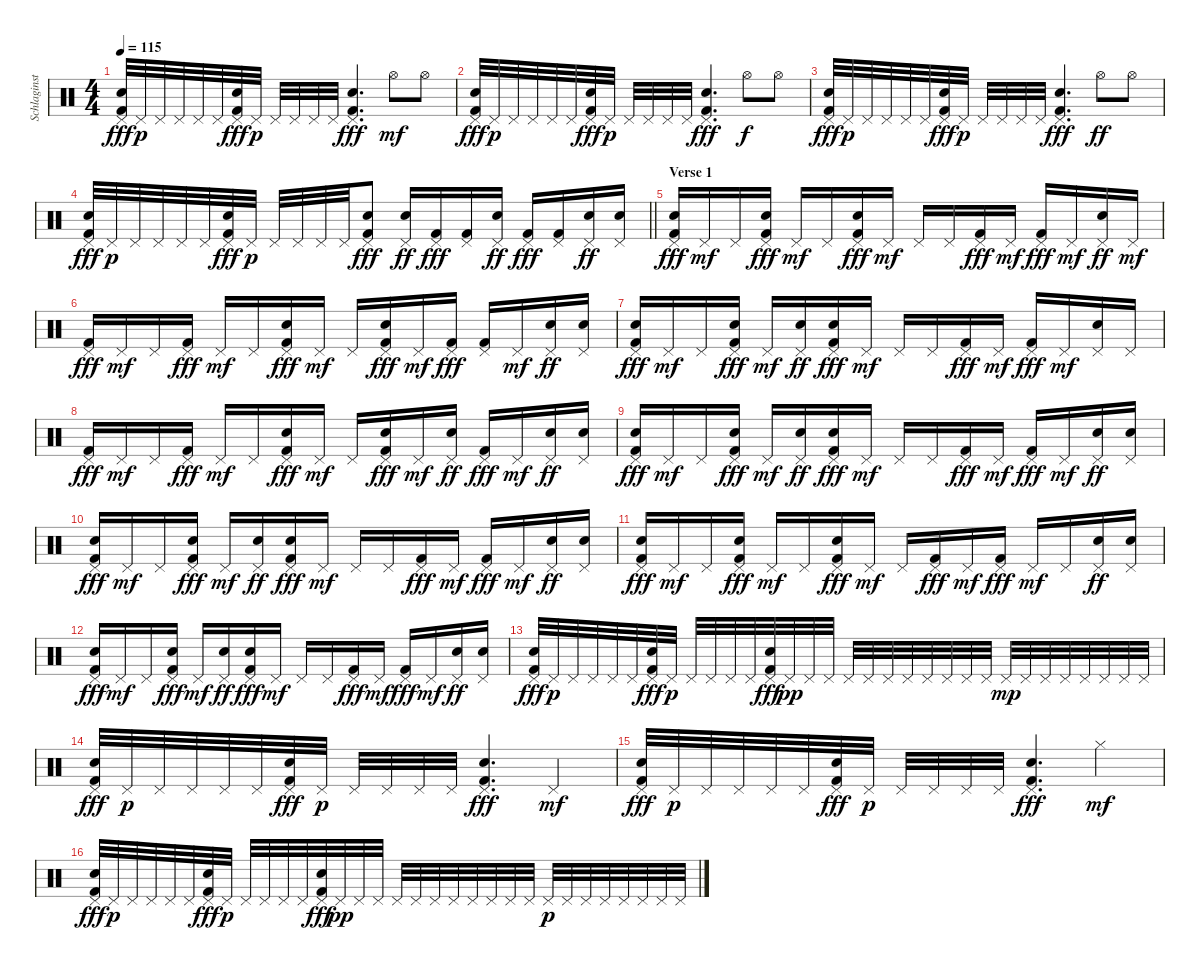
\track ("Schlaginstrumente - Auswahl" "Schlaginst") {instrument percussion}
\staff {score}
\articulation defaults
\ts (4 4)
\tempo 115
\clef neutral
\ks c
("Pedal Hi-Hat (hit)" "Snare (hit) 2" "Kick (hit) 2").32{dy fff} "Pedal Hi-Hat (hit)".32{dy p} "Pedal Hi-Hat (hit)".32 "Pedal Hi-Hat (hit)".32 "Pedal Hi-Hat (hit)".32 "Pedal Hi-Hat (hit)".32 ("Pedal Hi-Hat (hit)" "Snare (hit) 2" "Kick (hit) 2").32{dy fff} "Pedal Hi-Hat (hit)".32{dy p} "Pedal Hi-Hat (hit)".32 "Pedal Hi-Hat (hit)".32 "Pedal Hi-Hat (hit)".32 "Pedal Hi-Hat (hit)".32 ("Pedal Hi-Hat (hit)" "Snare (hit) 2" "Kick (hit) 2").4{d dy fff} "Hi-Hat (open)".8{dy mf} "Hi-Hat (open)".8 |
("Pedal Hi-Hat (hit)" "Snare (hit) 2" "Kick (hit) 2").32{dy fff} "Pedal Hi-Hat (hit)".32{dy p} "Pedal Hi-Hat (hit)".32 "Pedal Hi-Hat (hit)".32 "Pedal Hi-Hat (hit)".32 "Pedal Hi-Hat (hit)".32 ("Pedal Hi-Hat (hit)" "Snare (hit) 2" "Kick (hit) 2").32{dy fff} "Pedal Hi-Hat (hit)".32{dy p} "Pedal Hi-Hat (hit)".32 "Pedal Hi-Hat (hit)".32 "Pedal Hi-Hat (hit)".32 "Pedal Hi-Hat (hit)".32 ("Pedal Hi-Hat (hit)" "Snare (hit) 2" "Kick (hit) 2").4{d dy fff} "Hi-Hat (open)".8{dy f} "Hi-Hat (open)".8 |
("Pedal Hi-Hat (hit)" "Snare (hit) 2" "Kick (hit) 2").32{dy fff} "Pedal Hi-Hat (hit)".32{dy p} "Pedal Hi-Hat (hit)".32 "Pedal Hi-Hat (hit)".32 "Pedal Hi-Hat (hit)".32 "Pedal Hi-Hat (hit)".32 ("Pedal Hi-Hat (hit)" "Snare (hit) 2" "Kick (hit) 2").32{dy fff} "Pedal Hi-Hat (hit)".32{dy p} "Pedal Hi-Hat (hit)".32 "Pedal Hi-Hat (hit)".32 "Pedal Hi-Hat (hit)".32 "Pedal Hi-Hat (hit)".32 ("Pedal Hi-Hat (hit)" "Snare (hit) 2" "Kick (hit) 2").4{d dy fff} "Hi-Hat (open)".8{dy ff} "Hi-Hat (open)".8 |
\barLineRight lightlight
("Pedal Hi-Hat (hit)" "Snare (hit) 2" "Kick (hit) 2").32{dy fff} "Pedal Hi-Hat (hit)".32{dy p} "Pedal Hi-Hat (hit)".32 "Pedal Hi-Hat (hit)".32 "Pedal Hi-Hat (hit)".32 "Pedal Hi-Hat (hit)".32 ("Pedal Hi-Hat (hit)" "Snare (hit) 2" "Kick (hit) 2").32{dy fff} "Pedal Hi-Hat (hit)".32{dy p} "Pedal Hi-Hat (hit)".32 "Pedal Hi-Hat (hit)".32 "Pedal Hi-Hat (hit)".32 "Pedal Hi-Hat (hit)".32 ("Pedal Hi-Hat (hit)" "Snare (hit) 2" "Kick (hit) 2").8{dy fff} ("Pedal Hi-Hat (hit)" "Snare (hit) 2").16{dy ff} ("Pedal Hi-Hat (hit)" "Kick (hit) 2").16{dy fff} ("Pedal Hi-Hat (hit)" "Kick (hit) 2").16 ("Pedal Hi-Hat (hit)" "Snare (hit) 2").16{dy ff} ("Pedal Hi-Hat (hit)" "Kick (hit) 2").16{dy fff} ("Pedal Hi-Hat (hit)" "Kick (hit) 2").16 ("Pedal Hi-Hat (hit)" "Snare (hit) 2").16{dy ff} ("Pedal Hi-Hat (hit)" "Snare (hit) 2").16 |
\section ("" "Verse 1")
("Pedal Hi-Hat (hit)" "Snare (hit) 2" "Kick (hit) 2").16{dy fff} "Pedal Hi-Hat (hit)".16{dy mf} "Pedal Hi-Hat (hit)".16 ("Pedal Hi-Hat (hit)" "Snare (hit) 2" "Kick (hit) 2").16{dy fff} "Pedal Hi-Hat (hit)".16{dy mf} "Pedal Hi-Hat (hit)".16 ("Pedal Hi-Hat (hit)" "Snare (hit) 2" "Kick (hit) 2").16{dy fff} "Pedal Hi-Hat (hit)".16{dy mf} "Pedal Hi-Hat (hit)".16 "Pedal Hi-Hat (hit)".16 ("Pedal Hi-Hat (hit)" "Kick (hit) 2").16{dy fff} "Pedal Hi-Hat (hit)".16{dy mf} ("Pedal Hi-Hat (hit)" "Kick (hit) 2").16{dy fff} "Pedal Hi-Hat (hit)".16{dy mf} ("Pedal Hi-Hat (hit)" "Snare (hit) 2").16{dy ff} "Pedal Hi-Hat (hit)".16{dy mf} |
("Pedal Hi-Hat (hit)" "Kick (hit) 2").16{dy fff} "Pedal Hi-Hat (hit)".16{dy mf} "Pedal Hi-Hat (hit)".16 ("Pedal Hi-Hat (hit)" "Kick (hit) 2").16{dy fff} "Pedal Hi-Hat (hit)".16{dy mf} "Pedal Hi-Hat (hit)".16 ("Pedal Hi-Hat (hit)" "Snare (hit) 2" "Kick (hit) 2").16{dy fff} "Pedal Hi-Hat (hit)".16{dy mf} "Pedal Hi-Hat (hit)".16 ("Pedal Hi-Hat (hit)" "Snare (hit) 2" "Kick (hit) 2").16{dy fff} "Pedal Hi-Hat (hit)".16{dy mf} ("Pedal Hi-Hat (hit)" "Kick (hit) 2").16{dy fff} ("Pedal Hi-Hat (hit)" "Kick (hit) 2").16 "Pedal Hi-Hat (hit)".16{dy mf} ("Pedal Hi-Hat (hit)" "Snare (hit) 2").16{dy ff} ("Pedal Hi-Hat (hit)" "Snare (hit) 2").16 |
("Pedal Hi-Hat (hit)" "Snare (hit) 2" "Kick (hit) 2").16{dy fff} "Pedal Hi-Hat (hit)".16{dy mf} "Pedal Hi-Hat (hit)".16 ("Pedal Hi-Hat (hit)" "Snare (hit) 2" "Kick (hit) 2").16{dy fff} "Pedal Hi-Hat (hit)".16{dy mf} ("Pedal Hi-Hat (hit)" "Snare (hit) 2").16{dy ff} ("Pedal Hi-Hat (hit)" "Snare (hit) 2" "Kick (hit) 2").16{dy fff} "Pedal Hi-Hat (hit)".16{dy mf} "Pedal Hi-Hat (hit)".16 "Pedal Hi-Hat (hit)".16 ("Pedal Hi-Hat (hit)" "Kick (hit) 2").16{dy fff} "Pedal Hi-Hat (hit)".16{dy mf} ("Pedal Hi-Hat (hit)" "Kick (hit) 2").16{dy fff} "Pedal Hi-Hat (hit)".16{dy mf} ("Pedal Hi-Hat (hit)" "Snare (hit) 2").16 "Pedal Hi-Hat (hit)".16 |
("Pedal Hi-Hat (hit)" "Kick (hit) 2").16{dy fff} "Pedal Hi-Hat (hit)".16{dy mf} "Pedal Hi-Hat (hit)".16 ("Pedal Hi-Hat (hit)" "Kick (hit) 2").16{dy fff} "Pedal Hi-Hat (hit)".16{dy mf} "Pedal Hi-Hat (hit)".16 ("Pedal Hi-Hat (hit)" "Snare (hit) 2" "Kick (hit) 2").16{dy fff} "Pedal Hi-Hat (hit)".16{dy mf} "Pedal Hi-Hat (hit)".16 ("Pedal Hi-Hat (hit)" "Snare (hit) 2" "Kick (hit) 2").16{dy fff} "Pedal Hi-Hat (hit)".16{dy mf} ("Pedal Hi-Hat (hit)" "Snare (hit) 2").16{dy ff} ("Pedal Hi-Hat (hit)" "Kick (hit) 2").16{dy fff} "Pedal Hi-Hat (hit)".16{dy mf} ("Pedal Hi-Hat (hit)" "Snare (hit) 2").16{dy ff} ("Pedal Hi-Hat (hit)" "Snare (hit) 2").16 |
("Pedal Hi-Hat (hit)" "Snare (hit) 2" "Kick (hit) 2").16{dy fff} "Pedal Hi-Hat (hit)".16{dy mf} "Pedal Hi-Hat (hit)".16 ("Pedal Hi-Hat (hit)" "Snare (hit) 2" "Kick (hit) 2").16{dy fff} "Pedal Hi-Hat (hit)".16{dy mf} ("Pedal Hi-Hat (hit)" "Snare (hit) 2").16{dy ff} ("Pedal Hi-Hat (hit)" "Snare (hit) 2" "Kick (hit) 2").16{dy fff} "Pedal Hi-Hat (hit)".16{dy mf} "Pedal Hi-Hat (hit)".16 "Pedal Hi-Hat (hit)".16 ("Pedal Hi-Hat (hit)" "Kick (hit) 2").16{dy fff} "Pedal Hi-Hat (hit)".16{dy mf} ("Pedal Hi-Hat (hit)" "Kick (hit) 2").16{dy fff} "Pedal Hi-Hat (hit)".16{dy mf} ("Pedal Hi-Hat (hit)" "Snare (hit) 2").16{dy ff} ("Pedal Hi-Hat (hit)" "Snare (hit) 2").16 |
("Pedal Hi-Hat (hit)" "Snare (hit) 2" "Kick (hit) 2").16{dy fff} "Pedal Hi-Hat (hit)".16{dy mf} "Pedal Hi-Hat (hit)".16 ("Pedal Hi-Hat (hit)" "Snare (hit) 2" "Kick (hit) 2").16{dy fff} "Pedal Hi-Hat (hit)".16{dy mf} ("Pedal Hi-Hat (hit)" "Snare (hit) 2").16{dy ff} ("Pedal Hi-Hat (hit)" "Snare (hit) 2" "Kick (hit) 2").16{dy fff} "Pedal Hi-Hat (hit)".16{dy mf} "Pedal Hi-Hat (hit)".16 "Pedal Hi-Hat (hit)".16 ("Pedal Hi-Hat (hit)" "Kick (hit) 2").16{dy fff} "Pedal Hi-Hat (hit)".16{dy mf} ("Pedal Hi-Hat (hit)" "Kick (hit) 2").16{dy fff} "Pedal Hi-Hat (hit)".16{dy mf} ("Pedal Hi-Hat (hit)" "Snare (hit) 2").16{dy ff} ("Pedal Hi-Hat (hit)" "Snare (hit) 2").16 |
("Pedal Hi-Hat (hit)" "Snare (hit) 2" "Kick (hit) 2").16{dy fff} "Pedal Hi-Hat (hit)".16{dy mf} "Pedal Hi-Hat (hit)".16 ("Pedal Hi-Hat (hit)" "Snare (hit) 2" "Kick (hit) 2").16{dy fff} "Pedal Hi-Hat (hit)".16{dy mf} "Pedal Hi-Hat (hit)".16 ("Pedal Hi-Hat (hit)" "Snare (hit) 2" "Kick (hit) 2").16{dy fff} "Pedal Hi-Hat (hit)".16{dy mf} "Pedal Hi-Hat (hit)".16 ("Pedal Hi-Hat (hit)" "Kick (hit) 2").16{dy fff} "Pedal Hi-Hat (hit)".16{dy mf} ("Pedal Hi-Hat (hit)" "Kick (hit) 2").16{dy fff} "Pedal Hi-Hat (hit)".16{dy mf} "Pedal Hi-Hat (hit)".16 ("Pedal Hi-Hat (hit)" "Snare (hit) 2").16{dy ff} ("Pedal Hi-Hat (hit)" "Snare (hit) 2").16 |
("Pedal Hi-Hat (hit)" "Snare (hit) 2" "Kick (hit) 2").16{dy fff} "Pedal Hi-Hat (hit)".16{dy mf} "Pedal Hi-Hat (hit)".16 ("Pedal Hi-Hat (hit)" "Snare (hit) 2" "Kick (hit) 2").16{dy fff} "Pedal Hi-Hat (hit)".16{dy mf} ("Pedal Hi-Hat (hit)" "Snare (hit) 2").16{dy ff} ("Pedal Hi-Hat (hit)" "Snare (hit) 2" "Kick (hit) 2").16{dy fff} "Pedal Hi-Hat (hit)".16{dy mf} "Pedal Hi-Hat (hit)".16 "Pedal Hi-Hat (hit)".16 ("Pedal Hi-Hat (hit)" "Kick (hit) 2").16{dy fff} "Pedal Hi-Hat (hit)".16{dy mf} ("Pedal Hi-Hat (hit)" "Kick (hit) 2").16{dy fff} "Pedal Hi-Hat (hit)".16{dy mf} ("Pedal Hi-Hat (hit)" "Snare (hit) 2").16{dy ff} ("Pedal Hi-Hat (hit)" "Snare (hit) 2").16 |
("Pedal Hi-Hat (hit)" "Snare (hit) 2" "Kick (hit) 2").32{dy fff} "Pedal Hi-Hat (hit)".32{dy p} "Pedal Hi-Hat (hit)".32 "Pedal Hi-Hat (hit)".32 "Pedal Hi-Hat (hit)".32 "Pedal Hi-Hat (hit)".32 ("Pedal Hi-Hat (hit)" "Snare (hit) 2" "Kick (hit) 2").32{dy fff} "Pedal Hi-Hat (hit)".32{dy p} "Pedal Hi-Hat (hit)".32 "Pedal Hi-Hat (hit)".32 "Pedal Hi-Hat (hit)".32 "Pedal Hi-Hat (hit)".32 ("Pedal Hi-Hat (hit)" "Snare (hit) 2" "Kick (hit) 2").32{dy fff} "Pedal Hi-Hat (hit)".32{dy pp} "Pedal Hi-Hat (hit)".32 "Pedal Hi-Hat (hit)".32 "Pedal Hi-Hat (hit)".32 "Pedal Hi-Hat (hit)".32 "Pedal Hi-Hat (hit)".32 "Pedal Hi-Hat (hit)".32 "Pedal Hi-Hat (hit)".32 "Pedal Hi-Hat (hit)".32 "Pedal Hi-Hat (hit)".32 "Pedal Hi-Hat (hit)".32 "Pedal Hi-Hat (hit)".32{dy mp} "Pedal Hi-Hat (hit)".32 "Pedal Hi-Hat (hit)".32 "Pedal Hi-Hat (hit)".32 "Pedal Hi-Hat (hit)".32 "Pedal Hi-Hat (hit)".32 "Pedal Hi-Hat (hit)".32 "Pedal Hi-Hat (hit)".32 |
("Pedal Hi-Hat (hit)" "Snare (hit) 2" "Kick (hit) 2").32{dy fff} "Pedal Hi-Hat (hit)".32{dy p} "Pedal Hi-Hat (hit)".32 "Pedal Hi-Hat (hit)".32 "Pedal Hi-Hat (hit)".32 "Pedal Hi-Hat (hit)".32 ("Pedal Hi-Hat (hit)" "Snare (hit) 2" "Kick (hit) 2").32{dy fff} "Pedal Hi-Hat (hit)".32{dy p} "Pedal Hi-Hat (hit)".32 "Pedal Hi-Hat (hit)".32 "Pedal Hi-Hat (hit)".32 "Pedal Hi-Hat (hit)".32 ("Pedal Hi-Hat (hit)" "Snare (hit) 2" "Kick (hit) 2").4{d dy fff} "Pedal Hi-Hat (hit)".4{dy mf} |
("Pedal Hi-Hat (hit)" "Snare (hit) 2" "Kick (hit) 2").32{dy fff} "Pedal Hi-Hat (hit)".32{dy p} "Pedal Hi-Hat (hit)".32 "Pedal Hi-Hat (hit)".32 "Pedal Hi-Hat (hit)".32 "Pedal Hi-Hat (hit)".32 ("Pedal Hi-Hat (hit)" "Snare (hit) 2" "Kick (hit) 2").32{dy fff} "Pedal Hi-Hat (hit)".32{dy p} "Pedal Hi-Hat (hit)".32 "Pedal Hi-Hat (hit)".32 "Pedal Hi-Hat (hit)".32 "Pedal Hi-Hat (hit)".32 ("Pedal Hi-Hat (hit)" "Snare (hit) 2" "Kick (hit) 2").4{d dy fff} "Hi-Hat (closed)".4{dy mf} |
("Pedal Hi-Hat (hit)" "Snare (hit) 2" "Kick (hit) 2").32{dy fff} "Pedal Hi-Hat (hit)".32{dy p} "Pedal Hi-Hat (hit)".32 "Pedal Hi-Hat (hit)".32 "Pedal Hi-Hat (hit)".32 "Pedal Hi-Hat (hit)".32 ("Pedal Hi-Hat (hit)" "Snare (hit) 2" "Kick (hit) 2").32{dy fff} "Pedal Hi-Hat (hit)".32{dy p} "Pedal Hi-Hat (hit)".32 "Pedal Hi-Hat (hit)".32 "Pedal Hi-Hat (hit)".32 "Pedal Hi-Hat (hit)".32 ("Pedal Hi-Hat (hit)" "Snare (hit) 2" "Kick (hit) 2").32{dy fff} "Pedal Hi-Hat (hit)".32{dy pp} "Pedal Hi-Hat (hit)".32 "Pedal Hi-Hat (hit)".32 "Pedal Hi-Hat (hit)".32 "Pedal Hi-Hat (hit)".32 "Pedal Hi-Hat (hit)".32 "Pedal Hi-Hat (hit)".32 "Pedal Hi-Hat (hit)".32 "Pedal Hi-Hat (hit)".32 "Pedal Hi-Hat (hit)".32 "Pedal Hi-Hat (hit)".32 "Pedal Hi-Hat (hit)".32{dy p} "Pedal Hi-Hat (hit)".32 "Pedal Hi-Hat (hit)".32 "Pedal Hi-Hat (hit)".32 "Pedal Hi-Hat (hit)".32 "Pedal Hi-Hat (hit)".32 "Pedal Hi-Hat (hit)".32 "Pedal Hi-Hat (hit)".32
